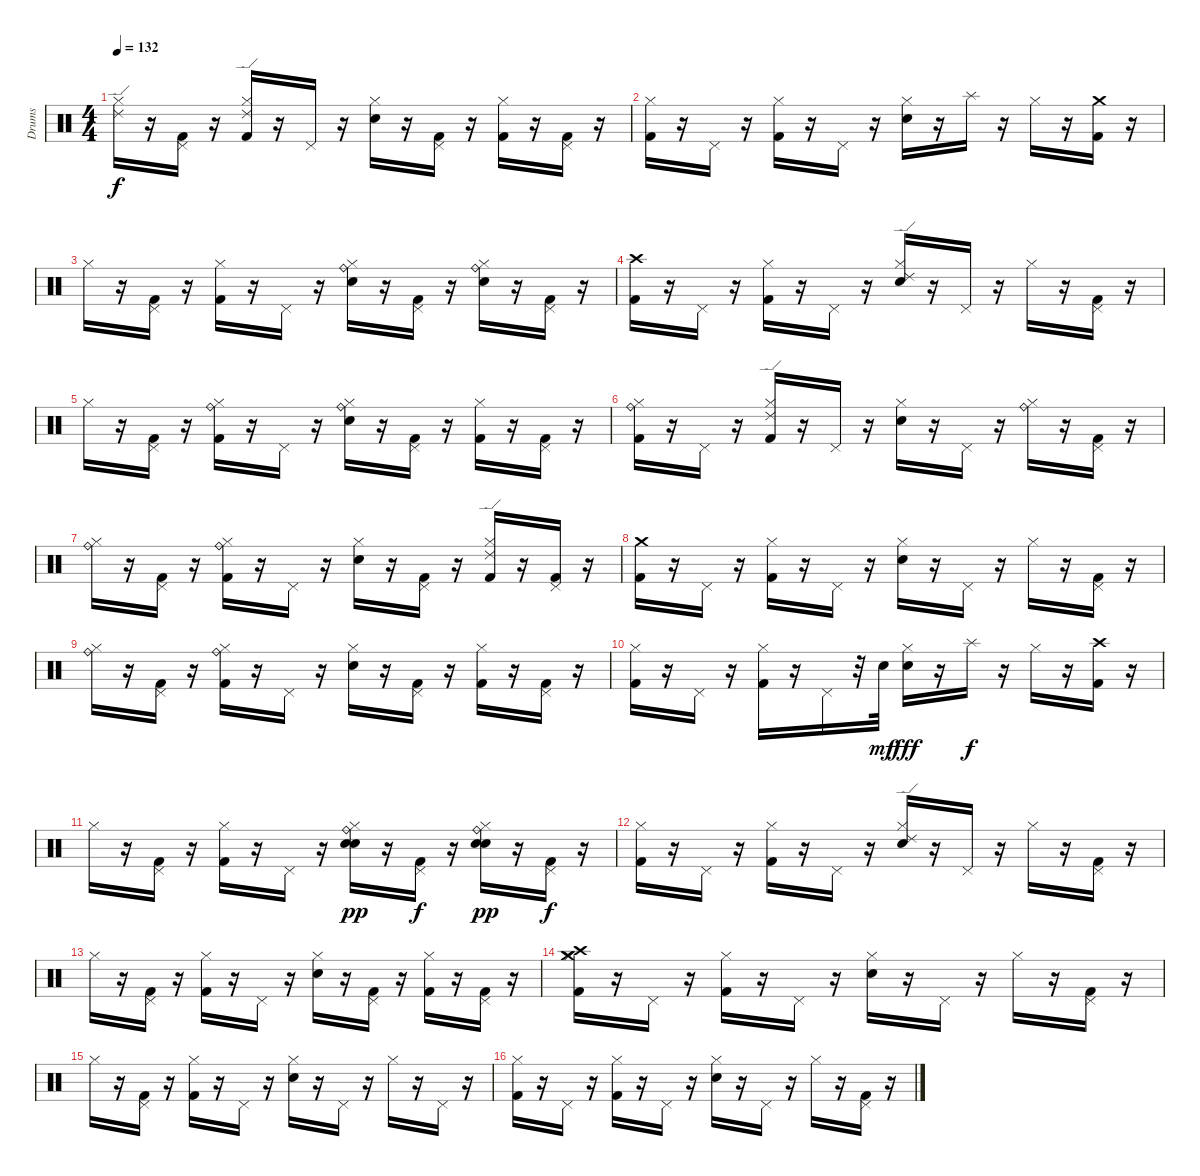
\track ("Drums" "Drums") {instrument percussion}
\staff {score}
\articulation defaults
\ts (4 4)
\tempo 132
\clef neutral
\ks c
("Ride (edge) 2" "Hi-Hat (closed)").16{dy f} r.16 ("Pedal Hi-Hat (hit)" "Kick (hit) 2").16 r.16 ("Ride (edge) 2" "Hi-Hat (closed)" "Kick (hit) 2").16 r.16 "Pedal Hi-Hat (hit)".16 r.16 ("Hi-Hat (closed)" "Electric Snare (hit)").16 r.16 ("Pedal Hi-Hat (hit)" "Kick (hit) 2").16 r.16 ("Hi-Hat (closed)" "Kick (hit) 2").16 r.16 ("Pedal Hi-Hat (hit)" "Kick (hit) 2").16 r.16 |
("Hi-Hat (closed)" "Kick (hit) 2").16 r.16 "Pedal Hi-Hat (hit)".16 r.16 ("Hi-Hat (closed)" "Kick (hit) 2").16 r.16 "Pedal Hi-Hat (hit)".16 r.16 ("Hi-Hat (closed)" "Electric Snare (hit)").16 r.16 "Splash (hit)".16 r.16 "Hi-Hat (closed)".16 r.16 ("Crash medium (hit)" "Kick (hit) 2").16 r.16 |
"Hi-Hat (closed)".16 r.16 ("Pedal Hi-Hat (hit)" "Kick (hit) 2").16 r.16 ("Hi-Hat (closed)" "Kick (hit) 2").16 r.16 "Pedal Hi-Hat (hit)".16 r.16 ("Ride (bell)" "Hi-Hat (closed)" "Electric Snare (hit)").16 r.16 ("Pedal Hi-Hat (hit)" "Kick (hit) 2").16 r.16 ("Ride (bell)" "Hi-Hat (closed)" "Electric Snare (hit)").16 r.16 ("Pedal Hi-Hat (hit)" "Kick (hit) 2").16 r.16 |
("Crash high (hit)" "Kick (hit) 2").16 r.16 "Pedal Hi-Hat (hit)".16 r.16 ("Hi-Hat (closed)" "Kick (hit) 2").16 r.16 "Pedal Hi-Hat (hit)".16 r.16 ("Ride (edge) 2" "Hi-Hat (closed)" "Electric Snare (hit)").16 r.16 "Pedal Hi-Hat (hit)".16 r.16 "Hi-Hat (closed)".16 r.16 ("Pedal Hi-Hat (hit)" "Kick (hit) 2").16 r.16 |
"Hi-Hat (closed)".16 r.16 ("Pedal Hi-Hat (hit)" "Kick (hit) 2").16 r.16 ("Ride (bell)" "Hi-Hat (closed)" "Kick (hit) 2").16 r.16 "Pedal Hi-Hat (hit)".16 r.16 ("Ride (bell)" "Hi-Hat (closed)" "Electric Snare (hit)").16 r.16 ("Pedal Hi-Hat (hit)" "Kick (hit) 2").16 r.16 ("Hi-Hat (closed)" "Kick (hit) 2").16 r.16 ("Pedal Hi-Hat (hit)" "Kick (hit) 2").16 r.16 |
("Ride (bell)" "Hi-Hat (closed)" "Kick (hit) 2").16 r.16 "Pedal Hi-Hat (hit)".16 r.16 ("Ride (edge) 2" "Hi-Hat (closed)" "Kick (hit) 2").16 r.16 "Pedal Hi-Hat (hit)".16 r.16 ("Hi-Hat (closed)" "Electric Snare (hit)").16 r.16 "Pedal Hi-Hat (hit)".16 r.16 ("Ride (bell)" "Hi-Hat (closed)").16 r.16 ("Pedal Hi-Hat (hit)" "Kick (hit) 2").16 r.16 |
("Ride (bell)" "Hi-Hat (closed)").16 r.16 ("Pedal Hi-Hat (hit)" "Kick (hit) 2").16 r.16 ("Ride (bell)" "Hi-Hat (closed)" "Kick (hit) 2").16 r.16 "Pedal Hi-Hat (hit)".16 r.16 ("Hi-Hat (closed)" "Electric Snare (hit)").16 r.16 ("Pedal Hi-Hat (hit)" "Kick (hit) 2").16 r.16 ("Ride (edge) 2" "Hi-Hat (closed)" "Kick (hit) 2").16 r.16 ("Pedal Hi-Hat (hit)" "Kick (hit) 2").16 r.16 |
("Crash medium (hit)" "Kick (hit) 2").16 r.16 "Pedal Hi-Hat (hit)".16 r.16 ("Hi-Hat (closed)" "Kick (hit) 2").16 r.16 "Pedal Hi-Hat (hit)".16 r.16 ("Hi-Hat (closed)" "Electric Snare (hit)").16 r.16 "Pedal Hi-Hat (hit)".16 r.16 "Hi-Hat (closed)".16 r.16 ("Pedal Hi-Hat (hit)" "Kick (hit) 2").16 r.16 |
("Ride (bell)" "Hi-Hat (closed)").16 r.16 ("Pedal Hi-Hat (hit)" "Kick (hit) 2").16 r.16 ("Ride (bell)" "Hi-Hat (closed)" "Kick (hit) 2").16 r.16 "Pedal Hi-Hat (hit)".16 r.16 ("Hi-Hat (closed)" "Electric Snare (hit)").16 r.16 ("Pedal Hi-Hat (hit)" "Kick (hit) 2").16 r.16 ("Hi-Hat (closed)" "Kick (hit) 2").16 r.16 ("Pedal Hi-Hat (hit)" "Kick (hit) 2").16 r.16 |
("Hi-Hat (closed)" "Kick (hit) 2").16 r.16 "Pedal Hi-Hat (hit)".16 r.16 ("Hi-Hat (closed)" "Kick (hit) 2").16 r.16 "Pedal Hi-Hat (hit)".16 r.32 "Electric Snare (hit)".32{dy mf} ("Hi-Hat (closed)" "Electric Snare (hit)").16{dy fff} r.16 "Splash (hit)".16{dy f} r.16 "Hi-Hat (closed)".16 r.16 ("Crash high (hit)" "Kick (hit) 2").16 r.16 |
"Hi-Hat (closed)".16 r.16 ("Pedal Hi-Hat (hit)" "Kick (hit) 2").16 r.16 ("Hi-Hat (closed)" "Kick (hit) 2").16 r.16 "Pedal Hi-Hat (hit)".16 r.16 ("Snare (hit) 2" "Ride (bell)" "Hi-Hat (closed)" "Electric Snare (hit)").16{dy pp} r.16 ("Pedal Hi-Hat (hit)" "Kick (hit) 2").16{dy f} r.16 ("Snare (hit) 2" "Ride (bell)" "Hi-Hat (closed)" "Electric Snare (hit)").16{dy pp} r.16 ("Pedal Hi-Hat (hit)" "Kick (hit) 2").16{dy f} r.16 |
("Hi-Hat (closed)" "Kick (hit) 2").16 r.16 "Pedal Hi-Hat (hit)".16 r.16 ("Hi-Hat (closed)" "Kick (hit) 2").16 r.16 "Pedal Hi-Hat (hit)".16 r.16 ("Ride (edge) 2" "Hi-Hat (closed)" "Electric Snare (hit)").16 r.16 "Pedal Hi-Hat (hit)".16 r.16 "Hi-Hat (closed)".16 r.16 ("Pedal Hi-Hat (hit)" "Kick (hit) 2").16 r.16 |
"Hi-Hat (closed)".16 r.16 ("Pedal Hi-Hat (hit)" "Kick (hit) 2").16 r.16 ("Hi-Hat (closed)" "Kick (hit) 2").16 r.16 "Pedal Hi-Hat (hit)".16 r.16 ("Hi-Hat (closed)" "Electric Snare (hit)").16 r.16 ("Pedal Hi-Hat (hit)" "Kick (hit) 2").16 r.16 ("Hi-Hat (closed)" "Kick (hit) 2").16 r.16 ("Pedal Hi-Hat (hit)" "Kick (hit) 2").16 r.16 |
("Hi-Hat (closed)" "Kick (hit) 2" "Crash medium (hit)" "Crash high (hit)").16 r.16 "Pedal Hi-Hat (hit)".16 r.16 ("Hi-Hat (closed)" "Kick (hit) 2").16 r.16 "Pedal Hi-Hat (hit)".16 r.16 ("Hi-Hat (closed)" "Electric Snare (hit)").16 r.16 "Pedal Hi-Hat (hit)".16 r.16 "Hi-Hat (closed)".16 r.16 ("Pedal Hi-Hat (hit)" "Kick (hit) 2").16 r.16 |
"Hi-Hat (closed)".16 r.16 ("Pedal Hi-Hat (hit)" "Kick (hit) 2").16 r.16 ("Hi-Hat (closed)" "Kick (hit) 2").16 r.16 "Pedal Hi-Hat (hit)".16 r.16 ("Hi-Hat (closed)" "Electric Snare (hit)").16 r.16 "Pedal Hi-Hat (hit)".16 r.16 "Hi-Hat (closed)".16 r.16 "Pedal Hi-Hat (hit)".16 r.16 |
("Hi-Hat (closed)" "Kick (hit) 2").16 r.16 "Pedal Hi-Hat (hit)".16 r.16 ("Hi-Hat (closed)" "Kick (hit) 2").16 r.16 "Pedal Hi-Hat (hit)".16 r.16 ("Hi-Hat (closed)" "Electric Snare (hit)").16 r.16 "Pedal Hi-Hat (hit)".16 r.16 "Hi-Hat (closed)".16 r.16 ("Pedal Hi-Hat (hit)" "Kick (hit) 2").16 r.16
